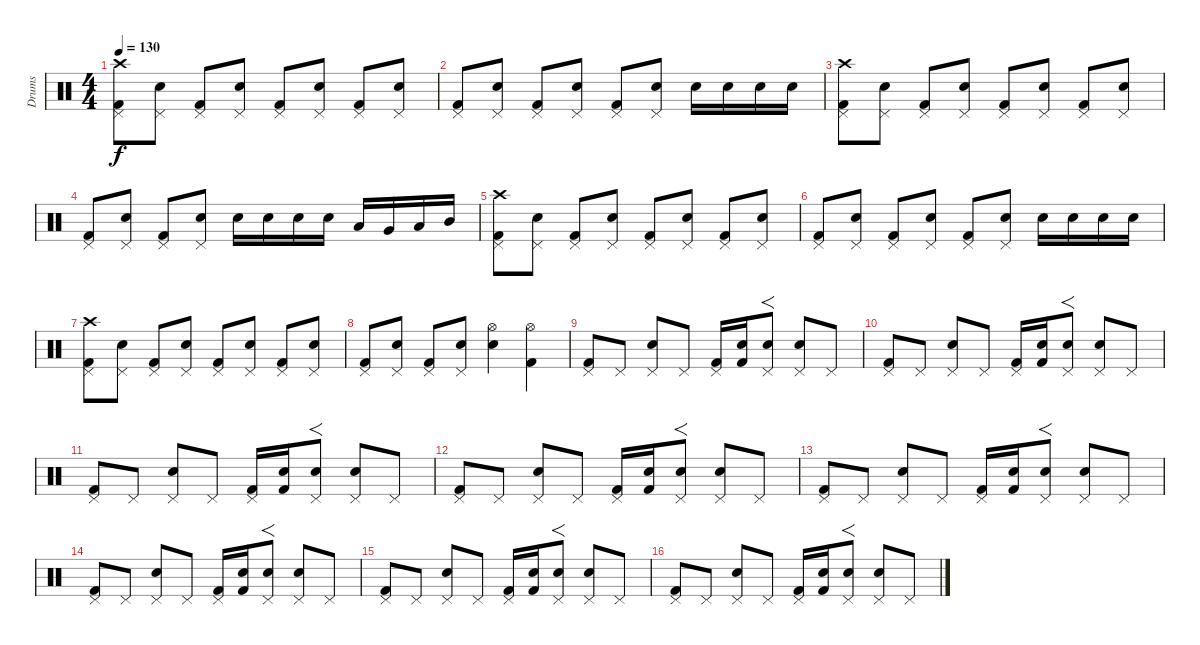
\track ("Drums" "Drums") {instrument percussion}
\staff {score}
\articulation defaults
\ts (4 4)
\tempo 130
\clef neutral
\ks c
("Kick (hit) 2" "Pedal Hi-Hat (hit)" "Crash high (hit)").8{dy f} ("Electric Snare (hit)" "Pedal Hi-Hat (hit)").8 ("Kick (hit) 2" "Pedal Hi-Hat (hit)").8 ("Electric Snare (hit)" "Pedal Hi-Hat (hit)").8 ("Kick (hit) 2" "Pedal Hi-Hat (hit)").8 ("Electric Snare (hit)" "Pedal Hi-Hat (hit)").8 ("Kick (hit) 2" "Pedal Hi-Hat (hit)").8 ("Electric Snare (hit)" "Pedal Hi-Hat (hit)").8 |
("Kick (hit) 2" "Pedal Hi-Hat (hit)").8 ("Electric Snare (hit)" "Pedal Hi-Hat (hit)").8 ("Kick (hit) 2" "Pedal Hi-Hat (hit)").8 ("Electric Snare (hit)" "Pedal Hi-Hat (hit)").8 ("Kick (hit) 2" "Pedal Hi-Hat (hit)").8 ("Electric Snare (hit)" "Pedal Hi-Hat (hit)").8 "Electric Snare (hit)".16 "Electric Snare (hit)".16 "Electric Snare (hit)".16 "Electric Snare (hit)".16 |
("Kick (hit) 2" "Pedal Hi-Hat (hit)" "Crash high (hit)").8 ("Electric Snare (hit)" "Pedal Hi-Hat (hit)").8 ("Kick (hit) 2" "Pedal Hi-Hat (hit)").8 ("Electric Snare (hit)" "Pedal Hi-Hat (hit)").8 ("Kick (hit) 2" "Pedal Hi-Hat (hit)").8 ("Electric Snare (hit)" "Pedal Hi-Hat (hit)").8 ("Kick (hit) 2" "Pedal Hi-Hat (hit)").8 ("Electric Snare (hit)" "Pedal Hi-Hat (hit)").8 |
("Kick (hit) 2" "Pedal Hi-Hat (hit)").8 ("Electric Snare (hit)" "Pedal Hi-Hat (hit)").8 ("Kick (hit) 2" "Pedal Hi-Hat (hit)").8 ("Electric Snare (hit)" "Pedal Hi-Hat (hit)").8 "Electric Snare (hit)".16 "Electric Snare (hit)".16 "Electric Snare (hit)".16 "Electric Snare (hit)".16 "Low Floor Tom (hit)".16 "Very Low Tom (hit)".16 "Low Tom (hit)".16 "Mid Tom (hit)".16 |
("Kick (hit) 2" "Pedal Hi-Hat (hit)" "Crash high (hit)").8 ("Electric Snare (hit)" "Pedal Hi-Hat (hit)").8 ("Kick (hit) 2" "Pedal Hi-Hat (hit)").8 ("Electric Snare (hit)" "Pedal Hi-Hat (hit)").8 ("Kick (hit) 2" "Pedal Hi-Hat (hit)").8 ("Electric Snare (hit)" "Pedal Hi-Hat (hit)").8 ("Kick (hit) 2" "Pedal Hi-Hat (hit)").8 ("Electric Snare (hit)" "Pedal Hi-Hat (hit)").8 |
("Kick (hit) 2" "Pedal Hi-Hat (hit)").8 ("Electric Snare (hit)" "Pedal Hi-Hat (hit)").8 ("Kick (hit) 2" "Pedal Hi-Hat (hit)").8 ("Electric Snare (hit)" "Pedal Hi-Hat (hit)").8 ("Kick (hit) 2" "Pedal Hi-Hat (hit)").8 ("Electric Snare (hit)" "Pedal Hi-Hat (hit)").8 "Electric Snare (hit)".16 "Electric Snare (hit)".16 "Electric Snare (hit)".16 "Electric Snare (hit)".16 |
("Kick (hit) 2" "Pedal Hi-Hat (hit)" "Crash high (hit)").8 ("Electric Snare (hit)" "Pedal Hi-Hat (hit)").8 ("Kick (hit) 2" "Pedal Hi-Hat (hit)").8 ("Electric Snare (hit)" "Pedal Hi-Hat (hit)").8 ("Kick (hit) 2" "Pedal Hi-Hat (hit)").8 ("Electric Snare (hit)" "Pedal Hi-Hat (hit)").8 ("Kick (hit) 2" "Pedal Hi-Hat (hit)").8 ("Electric Snare (hit)" "Pedal Hi-Hat (hit)").8 |
("Kick (hit) 2" "Pedal Hi-Hat (hit)").8 ("Electric Snare (hit)" "Pedal Hi-Hat (hit)").8 ("Kick (hit) 2" "Pedal Hi-Hat (hit)").8 ("Electric Snare (hit)" "Pedal Hi-Hat (hit)").8 ("Electric Snare (hit)" "Hi-Hat (open)").4 ("Kick (hit) 2" "Hi-Hat (open)").4 |
("Kick (hit) 2" "Pedal Hi-Hat (hit)").8 "Pedal Hi-Hat (hit)".8 ("Electric Snare (hit)" "Pedal Hi-Hat (hit)").8 "Pedal Hi-Hat (hit)".8 ("Kick (hit) 2" "Pedal Hi-Hat (hit)").16 ("Kick (hit) 2" "Electric Snare (hit)").16 ("Electric Snare (hit)" "Pedal Hi-Hat (hit)").8{f} ("Electric Snare (hit)" "Pedal Hi-Hat (hit)").8 "Pedal Hi-Hat (hit)".8 |
("Kick (hit) 2" "Pedal Hi-Hat (hit)").8 "Pedal Hi-Hat (hit)".8 ("Electric Snare (hit)" "Pedal Hi-Hat (hit)").8 "Pedal Hi-Hat (hit)".8 ("Kick (hit) 2" "Pedal Hi-Hat (hit)").16 ("Kick (hit) 2" "Electric Snare (hit)").16 ("Electric Snare (hit)" "Pedal Hi-Hat (hit)").8{f} ("Electric Snare (hit)" "Pedal Hi-Hat (hit)").8 "Pedal Hi-Hat (hit)".8 |
("Kick (hit) 2" "Pedal Hi-Hat (hit)").8 "Pedal Hi-Hat (hit)".8 ("Electric Snare (hit)" "Pedal Hi-Hat (hit)").8 "Pedal Hi-Hat (hit)".8 ("Kick (hit) 2" "Pedal Hi-Hat (hit)").16 ("Kick (hit) 2" "Electric Snare (hit)").16 ("Electric Snare (hit)" "Pedal Hi-Hat (hit)").8{f} ("Electric Snare (hit)" "Pedal Hi-Hat (hit)").8 "Pedal Hi-Hat (hit)".8 |
("Kick (hit) 2" "Pedal Hi-Hat (hit)").8 "Pedal Hi-Hat (hit)".8 ("Electric Snare (hit)" "Pedal Hi-Hat (hit)").8 "Pedal Hi-Hat (hit)".8 ("Kick (hit) 2" "Pedal Hi-Hat (hit)").16 ("Kick (hit) 2" "Electric Snare (hit)").16 ("Electric Snare (hit)" "Pedal Hi-Hat (hit)").8{f} ("Electric Snare (hit)" "Pedal Hi-Hat (hit)").8 "Pedal Hi-Hat (hit)".8 |
("Kick (hit) 2" "Pedal Hi-Hat (hit)").8 "Pedal Hi-Hat (hit)".8 ("Electric Snare (hit)" "Pedal Hi-Hat (hit)").8 "Pedal Hi-Hat (hit)".8 ("Kick (hit) 2" "Pedal Hi-Hat (hit)").16 ("Kick (hit) 2" "Electric Snare (hit)").16 ("Electric Snare (hit)" "Pedal Hi-Hat (hit)").8{f} ("Electric Snare (hit)" "Pedal Hi-Hat (hit)").8 "Pedal Hi-Hat (hit)".8 |
("Kick (hit) 2" "Pedal Hi-Hat (hit)").8 "Pedal Hi-Hat (hit)".8 ("Electric Snare (hit)" "Pedal Hi-Hat (hit)").8 "Pedal Hi-Hat (hit)".8 ("Kick (hit) 2" "Pedal Hi-Hat (hit)").16 ("Kick (hit) 2" "Electric Snare (hit)").16 ("Electric Snare (hit)" "Pedal Hi-Hat (hit)").8{f} ("Electric Snare (hit)" "Pedal Hi-Hat (hit)").8 "Pedal Hi-Hat (hit)".8 |
("Kick (hit) 2" "Pedal Hi-Hat (hit)").8 "Pedal Hi-Hat (hit)".8 ("Electric Snare (hit)" "Pedal Hi-Hat (hit)").8 "Pedal Hi-Hat (hit)".8 ("Kick (hit) 2" "Pedal Hi-Hat (hit)").16 ("Kick (hit) 2" "Electric Snare (hit)").16 ("Electric Snare (hit)" "Pedal Hi-Hat (hit)").8{f} ("Electric Snare (hit)" "Pedal Hi-Hat (hit)").8 "Pedal Hi-Hat (hit)".8 |
("Kick (hit) 2" "Pedal Hi-Hat (hit)").8 "Pedal Hi-Hat (hit)".8 ("Electric Snare (hit)" "Pedal Hi-Hat (hit)").8 "Pedal Hi-Hat (hit)".8 ("Kick (hit) 2" "Pedal Hi-Hat (hit)").16 ("Kick (hit) 2" "Electric Snare (hit)").16 ("Electric Snare (hit)" "Pedal Hi-Hat (hit)").8{f} ("Electric Snare (hit)" "Pedal Hi-Hat (hit)").8 "Pedal Hi-Hat (hit)".8
